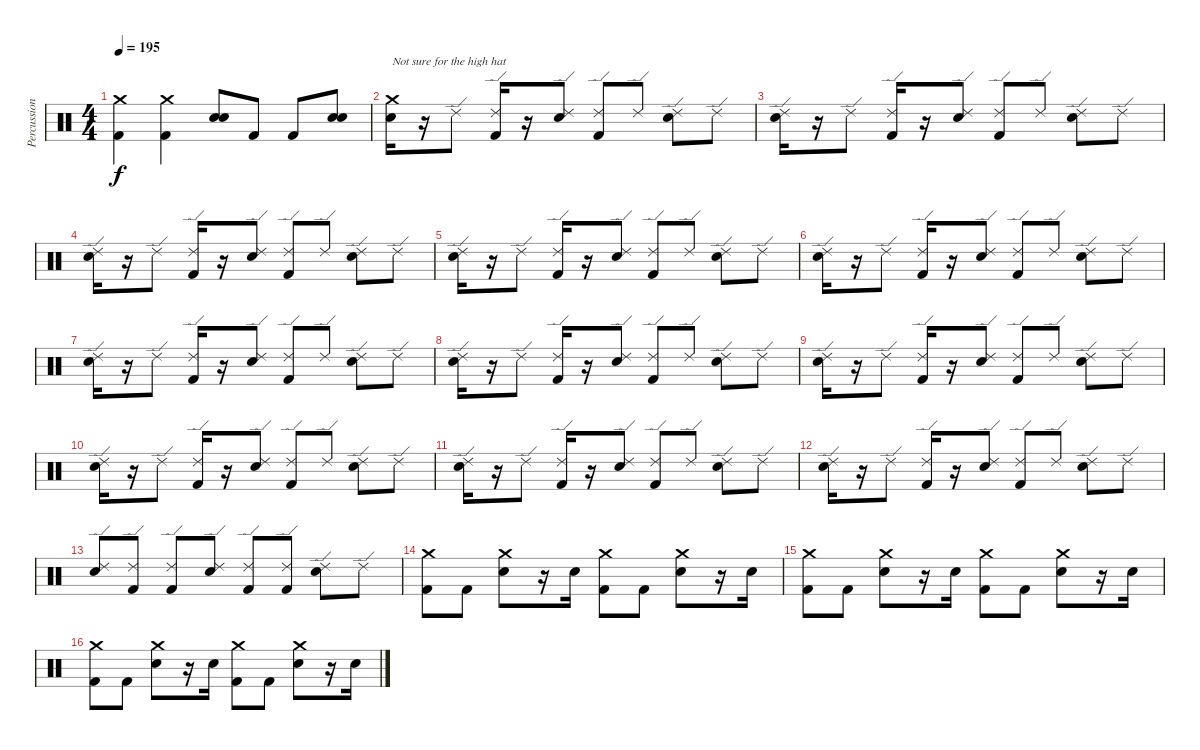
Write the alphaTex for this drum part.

\track ("Percussions" "Percussion") {instrument percussion}
\staff {score}
\articulation defaults
\ts (4 4)
\tempo 195
\clef neutral
\ks c
("Kick (hit) 2" "Crash medium (hit)").4{dy f} ("Kick (hit) 2" "Crash medium (hit)").4 ("Electric Snare (hit)" "Electric Snare (hit)").8 "Kick (hit) 2".8 "Kick (hit) 2".8 ("Electric Snare (hit)" "Electric Snare (hit)").8 |
("Electric Snare (hit)" "Crash medium (hit)").16{txt "Not sure for the high hat"} r.16 "Ride (edge) 2".8 ("Kick (hit) 2" "Ride (edge) 2").16 r.16 ("Electric Snare (hit)" "Ride (edge) 2").8 ("Kick (hit) 2" "Ride (edge) 2").8 "Ride (edge) 2".8 ("Electric Snare (hit)" "Ride (edge) 2").8 "Ride (edge) 2".8 |
("Electric Snare (hit)" "Ride (edge) 2").16 r.16 "Ride (edge) 2".8 ("Kick (hit) 2" "Ride (edge) 2").16 r.16 ("Electric Snare (hit)" "Ride (edge) 2").8 ("Kick (hit) 2" "Ride (edge) 2").8 "Ride (edge) 2".8 ("Electric Snare (hit)" "Ride (edge) 2").8 "Ride (edge) 2".8 |
("Electric Snare (hit)" "Ride (edge) 2").16 r.16 "Ride (edge) 2".8 ("Kick (hit) 2" "Ride (edge) 2").16 r.16 ("Electric Snare (hit)" "Ride (edge) 2").8 ("Kick (hit) 2" "Ride (edge) 2").8 "Ride (edge) 2".8 ("Electric Snare (hit)" "Ride (edge) 2").8 "Ride (edge) 2".8 |
("Electric Snare (hit)" "Ride (edge) 2").16 r.16 "Ride (edge) 2".8 ("Kick (hit) 2" "Ride (edge) 2").16 r.16 ("Electric Snare (hit)" "Ride (edge) 2").8 ("Kick (hit) 2" "Ride (edge) 2").8 "Ride (edge) 2".8 ("Electric Snare (hit)" "Ride (edge) 2").8 "Ride (edge) 2".8 |
("Electric Snare (hit)" "Ride (edge) 2").16 r.16 "Ride (edge) 2".8 ("Kick (hit) 2" "Ride (edge) 2").16 r.16 ("Electric Snare (hit)" "Ride (edge) 2").8 ("Kick (hit) 2" "Ride (edge) 2").8 "Ride (edge) 2".8 ("Electric Snare (hit)" "Ride (edge) 2").8 "Ride (edge) 2".8 |
("Electric Snare (hit)" "Ride (edge) 2").16 r.16 "Ride (edge) 2".8 ("Kick (hit) 2" "Ride (edge) 2").16 r.16 ("Electric Snare (hit)" "Ride (edge) 2").8 ("Kick (hit) 2" "Ride (edge) 2").8 "Ride (edge) 2".8 ("Electric Snare (hit)" "Ride (edge) 2").8 "Ride (edge) 2".8 |
("Electric Snare (hit)" "Ride (edge) 2").16 r.16 "Ride (edge) 2".8 ("Kick (hit) 2" "Ride (edge) 2").16 r.16 ("Electric Snare (hit)" "Ride (edge) 2").8 ("Kick (hit) 2" "Ride (edge) 2").8 "Ride (edge) 2".8 ("Electric Snare (hit)" "Ride (edge) 2").8 "Ride (edge) 2".8 |
("Electric Snare (hit)" "Ride (edge) 2").16 r.16 "Ride (edge) 2".8 ("Kick (hit) 2" "Ride (edge) 2").16 r.16 ("Electric Snare (hit)" "Ride (edge) 2").8 ("Kick (hit) 2" "Ride (edge) 2").8 "Ride (edge) 2".8 ("Electric Snare (hit)" "Ride (edge) 2").8 "Ride (edge) 2".8 |
("Electric Snare (hit)" "Ride (edge) 2").16 r.16 "Ride (edge) 2".8 ("Kick (hit) 2" "Ride (edge) 2").16 r.16 ("Electric Snare (hit)" "Ride (edge) 2").8 ("Kick (hit) 2" "Ride (edge) 2").8 "Ride (edge) 2".8 ("Electric Snare (hit)" "Ride (edge) 2").8 "Ride (edge) 2".8 |
("Electric Snare (hit)" "Ride (edge) 2").16 r.16 "Ride (edge) 2".8 ("Kick (hit) 2" "Ride (edge) 2").16 r.16 ("Electric Snare (hit)" "Ride (edge) 2").8 ("Kick (hit) 2" "Ride (edge) 2").8 "Ride (edge) 2".8 ("Electric Snare (hit)" "Ride (edge) 2").8 "Ride (edge) 2".8 |
("Electric Snare (hit)" "Ride (edge) 2").16 r.16 "Ride (edge) 2".8 ("Kick (hit) 2" "Ride (edge) 2").16 r.16 ("Electric Snare (hit)" "Ride (edge) 2").8 ("Kick (hit) 2" "Ride (edge) 2").8 "Ride (edge) 2".8 ("Electric Snare (hit)" "Ride (edge) 2").8 "Ride (edge) 2".8 |
("Electric Snare (hit)" "Ride (edge) 2").8 ("Kick (hit) 2" "Ride (edge) 2").8 ("Kick (hit) 2" "Ride (edge) 2").8 ("Electric Snare (hit)" "Ride (edge) 2").8 ("Kick (hit) 2" "Ride (edge) 2").8 ("Kick (hit) 2" "Ride (edge) 2").8 ("Electric Snare (hit)" "Ride (edge) 2").8 "Ride (edge) 2".8 |
("Kick (hit) 2" "Crash medium (hit)").8 "Kick (hit) 2".8 ("Electric Snare (hit)" "Crash medium (hit)").8 r.16 "Electric Snare (hit)".16 ("Kick (hit) 2" "Crash medium (hit)").8 "Kick (hit) 2".8 ("Electric Snare (hit)" "Crash medium (hit)").8 r.16 "Electric Snare (hit)".16 |
("Kick (hit) 2" "Crash medium (hit)").8 "Kick (hit) 2".8 ("Electric Snare (hit)" "Crash medium (hit)").8 r.16 "Electric Snare (hit)".16 ("Kick (hit) 2" "Crash medium (hit)").8 "Kick (hit) 2".8 ("Electric Snare (hit)" "Crash medium (hit)").8 r.16 "Electric Snare (hit)".16 |
("Kick (hit) 2" "Crash medium (hit)").8 "Kick (hit) 2".8 ("Electric Snare (hit)" "Crash medium (hit)").8 r.16 "Electric Snare (hit)".16 ("Kick (hit) 2" "Crash medium (hit)").8 "Kick (hit) 2".8 ("Electric Snare (hit)" "Crash medium (hit)").8 r.16 "Electric Snare (hit)".16
